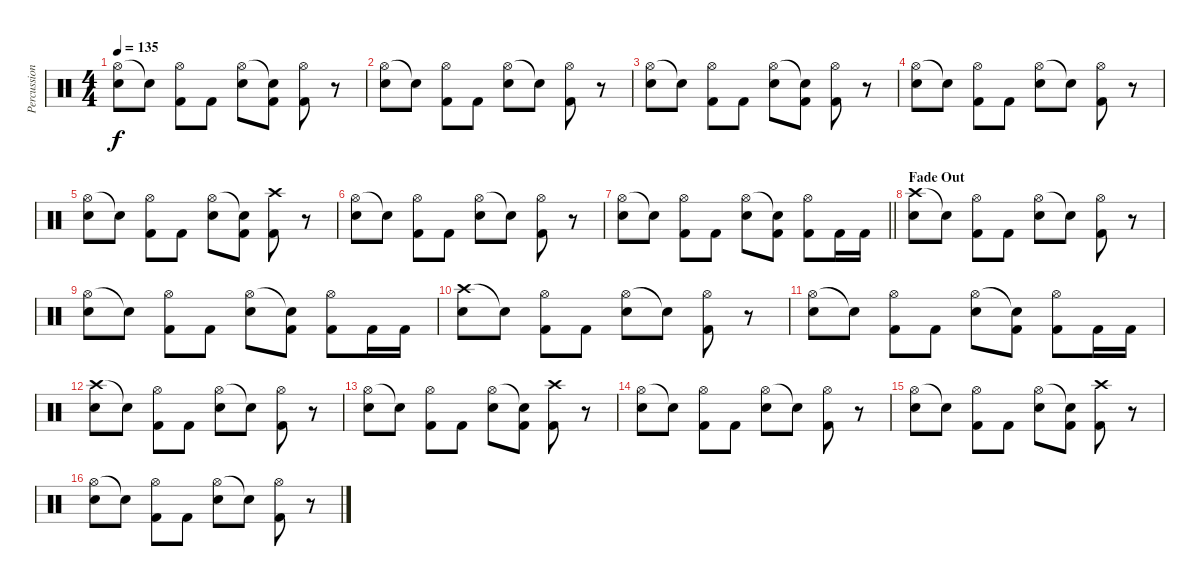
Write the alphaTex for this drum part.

\track ("Percussion" "Percussion") {instrument percussion}
\staff {score}
\articulation defaults
\ts (4 4)
\tempo 135
\clef neutral
\ks c
("Hi-Hat (open)" "Electric Snare (hit)").8{dy f} "Electric Snare (hit)"{t}.8 ("Hi-Hat (open)" "Kick (hit) 2").8 "Kick (hit) 2".8 ("Hi-Hat (open)" "Electric Snare (hit)").8 ("Electric Snare (hit)"{t} "Kick (hit) 2").8 ("Hi-Hat (open)" "Kick (hit) 2").8 r.8 |
("Hi-Hat (open)" "Electric Snare (hit)").8 "Electric Snare (hit)"{t}.8 ("Hi-Hat (open)" "Kick (hit) 2").8 "Kick (hit) 2".8 ("Hi-Hat (open)" "Electric Snare (hit)").8 "Electric Snare (hit)"{t}.8 ("Hi-Hat (open)" "Kick (hit) 2").8 r.8 |
("Hi-Hat (open)" "Electric Snare (hit)").8 "Electric Snare (hit)"{t}.8 ("Hi-Hat (open)" "Kick (hit) 2").8 "Kick (hit) 2".8 ("Hi-Hat (open)" "Electric Snare (hit)").8 ("Electric Snare (hit)"{t} "Kick (hit) 2").8 ("Hi-Hat (open)" "Kick (hit) 2").8 r.8 |
("Hi-Hat (open)" "Electric Snare (hit)").8 "Electric Snare (hit)"{t}.8 ("Hi-Hat (open)" "Kick (hit) 2").8 "Kick (hit) 2".8 ("Hi-Hat (open)" "Electric Snare (hit)").8 "Electric Snare (hit)"{t}.8 ("Hi-Hat (open)" "Kick (hit) 2").8 r.8 |
("Hi-Hat (open)" "Electric Snare (hit)").8 "Electric Snare (hit)"{t}.8 ("Hi-Hat (open)" "Kick (hit) 2").8 "Kick (hit) 2".8 ("Hi-Hat (open)" "Electric Snare (hit)").8 ("Electric Snare (hit)"{t} "Kick (hit) 2").8 ("Crash high (hit)" "Kick (hit) 2").8 r.8 |
("Hi-Hat (open)" "Electric Snare (hit)").8 "Electric Snare (hit)"{t}.8 ("Hi-Hat (open)" "Kick (hit) 2").8 "Kick (hit) 2".8 ("Hi-Hat (open)" "Electric Snare (hit)").8 "Electric Snare (hit)"{t}.8 ("Hi-Hat (open)" "Kick (hit) 2").8 r.8 |
\barLineRight lightlight
("Hi-Hat (open)" "Electric Snare (hit)").8 "Electric Snare (hit)"{t}.8 ("Hi-Hat (open)" "Kick (hit) 2").8 "Kick (hit) 2".8 ("Hi-Hat (open)" "Electric Snare (hit)").8 ("Electric Snare (hit)"{t} "Kick (hit) 2").8 ("Hi-Hat (open)" "Kick (hit) 2").8 "Kick (hit) 2".16 "Kick (hit) 2".16 |
\section ("" "Fade Out")
("Crash high (hit)" "Electric Snare (hit)").8 "Electric Snare (hit)"{t}.8 ("Hi-Hat (open)" "Kick (hit) 2").8 "Kick (hit) 2".8 ("Hi-Hat (open)" "Electric Snare (hit)").8{volume 13} "Electric Snare (hit)"{t}.8 ("Hi-Hat (open)" "Kick (hit) 2").8 r.8 |
("Hi-Hat (open)" "Electric Snare (hit)").8 "Electric Snare (hit)"{t}.8 ("Hi-Hat (open)" "Kick (hit) 2").8 "Kick (hit) 2".8 ("Hi-Hat (open)" "Electric Snare (hit)").8{volume 12} ("Electric Snare (hit)"{t} "Kick (hit) 2").8 ("Hi-Hat (open)" "Kick (hit) 2").8 "Kick (hit) 2".16 "Kick (hit) 2".16 |
("Crash high (hit)" "Electric Snare (hit)").8 "Electric Snare (hit)"{t}.8 ("Hi-Hat (open)" "Kick (hit) 2").8 "Kick (hit) 2".8 ("Hi-Hat (open)" "Electric Snare (hit)").8{volume 11} "Electric Snare (hit)"{t}.8 ("Hi-Hat (open)" "Kick (hit) 2").8 r.8 |
("Hi-Hat (open)" "Electric Snare (hit)").8 "Electric Snare (hit)"{t}.8 ("Hi-Hat (open)" "Kick (hit) 2").8 "Kick (hit) 2".8 ("Hi-Hat (open)" "Electric Snare (hit)").8{volume 10} ("Electric Snare (hit)"{t} "Kick (hit) 2").8 ("Hi-Hat (open)" "Kick (hit) 2").8 "Kick (hit) 2".16 "Kick (hit) 2".16 |
("Crash high (hit)" "Electric Snare (hit)").8 "Electric Snare (hit)"{t}.8 ("Hi-Hat (open)" "Kick (hit) 2").8 "Kick (hit) 2".8 ("Hi-Hat (open)" "Electric Snare (hit)").8{volume 9} "Electric Snare (hit)"{t}.8 ("Hi-Hat (open)" "Kick (hit) 2").8 r.8 |
("Hi-Hat (open)" "Electric Snare (hit)").8 "Electric Snare (hit)"{t}.8 ("Hi-Hat (open)" "Kick (hit) 2").8 "Kick (hit) 2".8 ("Hi-Hat (open)" "Electric Snare (hit)").8{volume 8} ("Electric Snare (hit)"{t} "Kick (hit) 2").8 ("Crash high (hit)" "Kick (hit) 2").8 r.8 |
("Hi-Hat (open)" "Electric Snare (hit)").8 "Electric Snare (hit)"{t}.8 ("Hi-Hat (open)" "Kick (hit) 2").8 "Kick (hit) 2".8 ("Hi-Hat (open)" "Electric Snare (hit)").8{volume 7} "Electric Snare (hit)"{t}.8 ("Hi-Hat (open)" "Kick (hit) 2").8 r.8 |
("Hi-Hat (open)" "Electric Snare (hit)").8 "Electric Snare (hit)"{t}.8 ("Hi-Hat (open)" "Kick (hit) 2").8 "Kick (hit) 2".8 ("Hi-Hat (open)" "Electric Snare (hit)").8{volume 6} ("Electric Snare (hit)"{t} "Kick (hit) 2").8 ("Crash high (hit)" "Kick (hit) 2").8 r.8 |
("Hi-Hat (open)" "Electric Snare (hit)").8 "Electric Snare (hit)"{t}.8 ("Hi-Hat (open)" "Kick (hit) 2").8 "Kick (hit) 2".8 ("Hi-Hat (open)" "Electric Snare (hit)").8{volume 3} "Electric Snare (hit)"{t}.8 ("Hi-Hat (open)" "Kick (hit) 2").8 r.8
